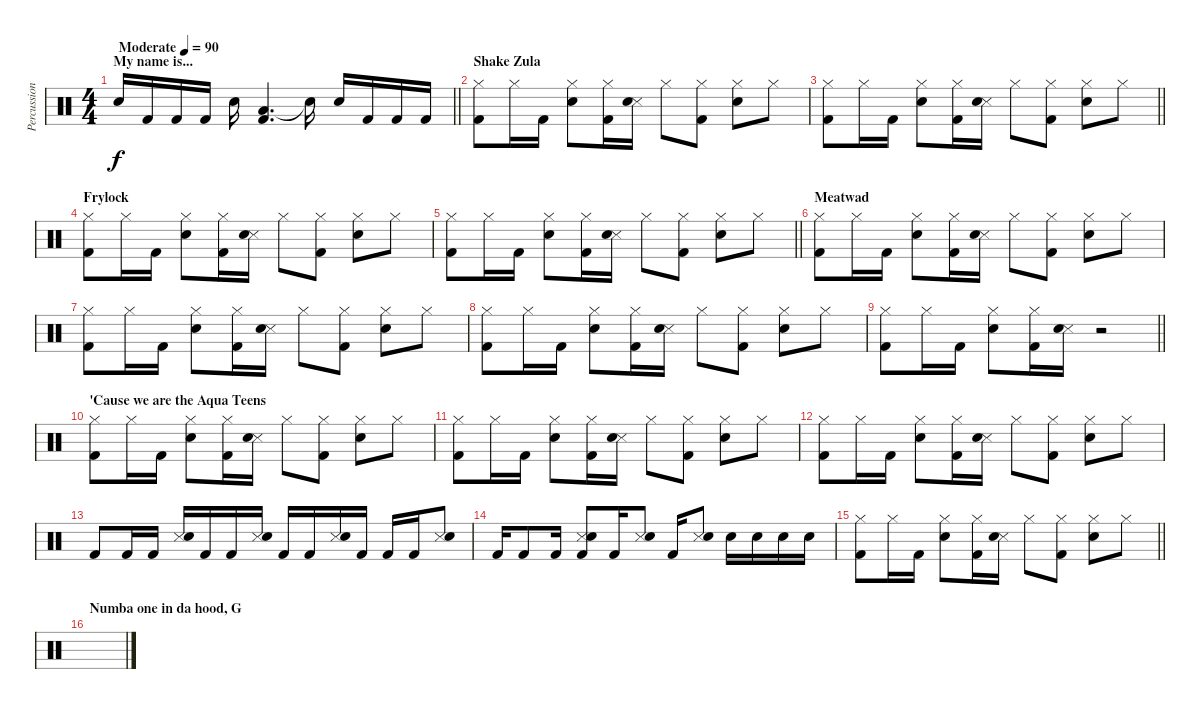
\track ("Percussion" "Percussion") {instrument percussion}
\staff {score}
\articulation defaults
\ts (4 4)
\section ("" "My name is...")
\tempo (90 "Moderate")
\clef neutral
\barLineRight lightlight
\ks c "Snare (hit) 2".16{dy f} "Kick (hit) 2".16 "Kick (hit) 2".16 "Kick (hit) 2".16 "Snare (hit) 2".16
("Low Floor Tom (hit)" "Kick (hit) 2").4{d} "Snare (hit)"{t}.16 "Snare (hit) 2".16 "Kick (hit) 2".16 "Kick (hit) 2".16 "Kick (hit) 2".16 |
\section ("" "Shake Zula")
("Hi-Hat (closed)" "Kick (hit) 2").8 "Hi-Hat (closed)".16 "Kick (hit) 2".16 ("Hi-Hat (closed)" "Snare (hit) 2").8 ("Hi-Hat (closed)" "Kick (hit) 2").16 ("Snare (side stick) 3" "Snare (hit) 2").16 "Hi-Hat (closed)".8 ("Hi-Hat (closed)" "Kick (hit) 2").8 ("Hi-Hat (closed)" "Snare (hit) 2").8 "Hi-Hat (closed)".8 |
\barLineRight lightlight
("Hi-Hat (closed)" "Kick (hit) 2").8 "Hi-Hat (closed)".16 "Kick (hit) 2".16 ("Hi-Hat (closed)" "Snare (hit) 2").8 ("Hi-Hat (closed)" "Kick (hit) 2").16 ("Snare (side stick) 3" "Snare (hit) 2").16 "Hi-Hat (closed)".8 ("Hi-Hat (closed)" "Kick (hit) 2").8 ("Hi-Hat (closed)" "Snare (hit) 2").8 "Hi-Hat (closed)".8 |
\section ("" "Frylock")
("Hi-Hat (closed)" "Kick (hit) 2").8 "Hi-Hat (closed)".16 "Kick (hit) 2".16 ("Hi-Hat (closed)" "Snare (hit) 2").8 ("Hi-Hat (closed)" "Kick (hit) 2").16 ("Snare (side stick) 3" "Snare (hit) 2").16 "Hi-Hat (closed)".8 ("Hi-Hat (closed)" "Kick (hit) 2").8 ("Hi-Hat (closed)" "Snare (hit) 2").8 "Hi-Hat (closed)".8 |
\barLineRight lightlight
("Hi-Hat (closed)" "Kick (hit) 2").8 "Hi-Hat (closed)".16 "Kick (hit) 2".16 ("Hi-Hat (closed)" "Snare (hit) 2").8 ("Hi-Hat (closed)" "Kick (hit) 2").16 ("Snare (side stick) 3" "Snare (hit) 2").16 "Hi-Hat (closed)".8 ("Hi-Hat (closed)" "Kick (hit) 2").8 ("Hi-Hat (closed)" "Snare (hit) 2").8 "Hi-Hat (closed)".8 |
\section ("" "Meatwad")
("Hi-Hat (closed)" "Kick (hit) 2").8 "Hi-Hat (closed)".16 "Kick (hit) 2".16 ("Hi-Hat (closed)" "Snare (hit) 2").8 ("Hi-Hat (closed)" "Kick (hit) 2").16 ("Snare (side stick) 3" "Snare (hit) 2").16 "Hi-Hat (closed)".8 ("Hi-Hat (closed)" "Kick (hit) 2").8 ("Hi-Hat (closed)" "Snare (hit) 2").8 "Hi-Hat (closed)".8 |
("Hi-Hat (closed)" "Kick (hit) 2").8 "Hi-Hat (closed)".16 "Kick (hit) 2".16 ("Hi-Hat (closed)" "Snare (hit) 2").8 ("Hi-Hat (closed)" "Kick (hit) 2").16 ("Snare (side stick) 3" "Snare (hit) 2").16 "Hi-Hat (closed)".8 ("Hi-Hat (closed)" "Kick (hit) 2").8 ("Hi-Hat (closed)" "Snare (hit) 2").8 "Hi-Hat (closed)".8 |
("Hi-Hat (closed)" "Kick (hit) 2").8 "Hi-Hat (closed)".16 "Kick (hit) 2".16 ("Hi-Hat (closed)" "Snare (hit) 2").8 ("Hi-Hat (closed)" "Kick (hit) 2").16 ("Snare (side stick) 3" "Snare (hit) 2").16 "Hi-Hat (closed)".8 ("Hi-Hat (closed)" "Kick (hit) 2").8 ("Hi-Hat (closed)" "Snare (hit) 2").8 "Hi-Hat (closed)".8 |
\barLineRight lightlight
("Hi-Hat (closed)" "Kick (hit) 2").8 "Hi-Hat (closed)".16 "Kick (hit) 2".16 ("Hi-Hat (closed)" "Snare (hit) 2").8 ("Hi-Hat (closed)" "Kick (hit) 2").16 ("Snare (side stick) 3" "Snare (hit) 2").16 r.2 |
\section ("" "'Cause we are the Aqua Teens")
("Hi-Hat (closed)" "Kick (hit) 2").8 "Hi-Hat (closed)".16 "Kick (hit) 2".16 ("Hi-Hat (closed)" "Snare (hit) 2").8 ("Hi-Hat (closed)" "Kick (hit) 2").16 ("Snare (side stick) 3" "Snare (hit) 2").16 "Hi-Hat (closed)".8 ("Hi-Hat (closed)" "Kick (hit) 2").8 ("Hi-Hat (closed)" "Snare (hit) 2").8 "Hi-Hat (closed)".8 |
("Hi-Hat (closed)" "Kick (hit) 2").8 "Hi-Hat (closed)".16 "Kick (hit) 2".16 ("Hi-Hat (closed)" "Snare (hit) 2").8 ("Hi-Hat (closed)" "Kick (hit) 2").16 ("Snare (side stick) 3" "Snare (hit) 2").16 "Hi-Hat (closed)".8 ("Hi-Hat (closed)" "Kick (hit) 2").8 ("Hi-Hat (closed)" "Snare (hit) 2").8 "Hi-Hat (closed)".8 |
("Hi-Hat (closed)" "Kick (hit) 2").8 "Hi-Hat (closed)".16 "Kick (hit) 2".16 ("Hi-Hat (closed)" "Snare (hit) 2").8 ("Hi-Hat (closed)" "Kick (hit) 2").16 ("Snare (side stick) 3" "Snare (hit) 2").16 "Hi-Hat (closed)".8 ("Hi-Hat (closed)" "Kick (hit) 2").8 ("Hi-Hat (closed)" "Snare (hit) 2").8 "Hi-Hat (closed)".8 |
"Kick (hit) 2".8 "Kick (hit) 2".16 "Kick (hit) 2".16 ("Snare (side stick) 3" "Snare (hit) 2").16 "Kick (hit) 2".16 "Kick (hit) 2".16 ("Snare (side stick) 3" "Snare (hit) 2").16 "Kick (hit) 2".16 "Kick (hit) 2".16 ("Snare (side stick) 3" "Snare (hit) 2").16 "Kick (hit) 2".16 "Kick (hit) 2".16 "Kick (hit) 2".16 ("Snare (side stick) 3" "Snare (hit) 2").8 |
"Kick (hit) 2".16 "Kick (hit) 2".8 "Kick (hit) 2".16 ("Snare (side stick) 3" "Snare (hit) 2" "Kick (hit) 2").8 "Kick (hit) 2".16 ("Snare (side stick) 3" "Snare (hit) 2").8 "Kick (hit) 2".16 ("Snare (side stick) 3" "Snare (hit) 2").8 "Snare (hit) 2".16 "Snare (hit) 2".16 "Snare (hit) 2".16 "Snare (hit) 2".16 |
\barLineRight lightlight
("Hi-Hat (closed)" "Kick (hit) 2").8 "Hi-Hat (closed)".16 "Kick (hit) 2".16 ("Hi-Hat (closed)" "Snare (hit) 2").8 ("Hi-Hat (closed)" "Kick (hit) 2").16 ("Snare (side stick) 3" "Snare (hit) 2").16 "Hi-Hat (closed)".8 ("Hi-Hat (closed)" "Kick (hit) 2").8 ("Hi-Hat (closed)" "Snare (hit) 2").8 "Hi-Hat (closed)".8 |
\section ("" "Numba one in da hood, G")
